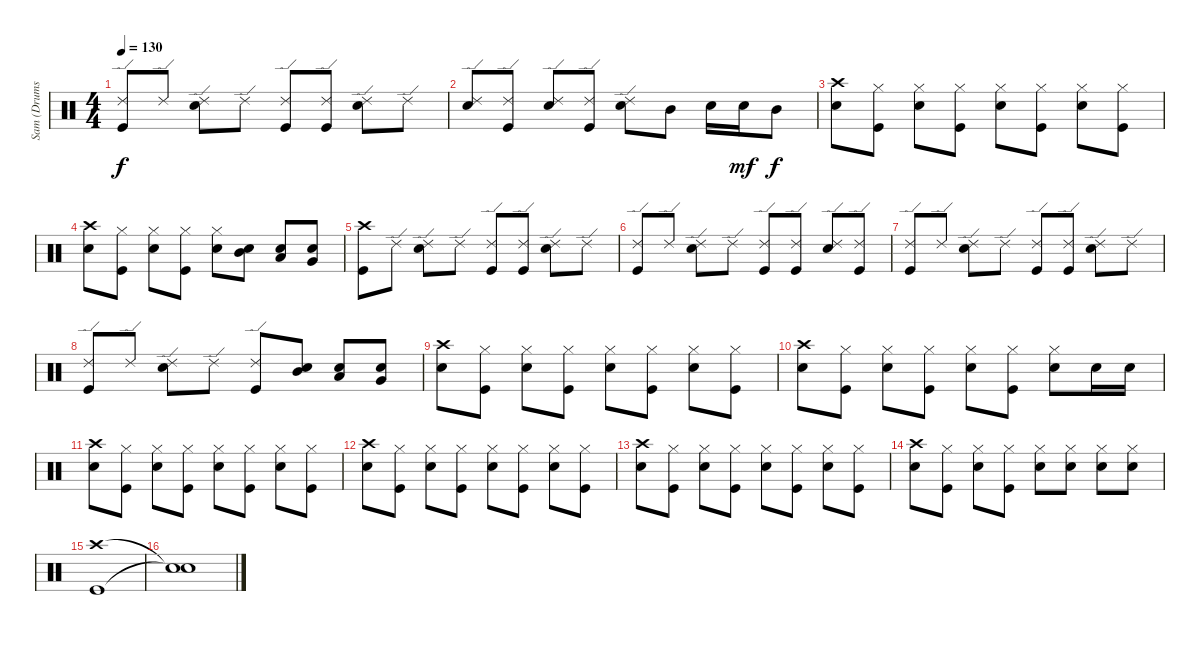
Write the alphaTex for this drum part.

\track ("Sam (Drums)" "Sam (Drums") {instrument percussion}
\staff {score}
\articulation defaults
\ts (4 4)
\tempo 130
\clef neutral
\ks c
("Ride (edge) 2" "Kick (hit)").8{dy f} "Ride (edge) 2".8 ("Ride (edge) 2" "Snare (hit) 2").8 "Ride (edge) 2".8 ("Ride (edge) 2" "Kick (hit)").8 ("Ride (edge) 2" "Kick (hit)").8 ("Ride (edge) 2" "Snare (hit) 2").8 "Ride (edge) 2".8 |
("Ride (edge) 2" "Snare (hit) 2").8 ("Ride (edge) 2" "Kick (hit)").8 ("Ride (edge) 2" "Snare (hit) 2").8 ("Ride (edge) 2" "Kick (hit)").8 ("Ride (edge) 2" "Snare (hit) 2").8 "Mid Tom (hit)".8 "Snare (hit) 2".16 "Snare (hit) 2".16{dy mf} "Mid Tom (hit)".8{dy f} |
("Crash high (hit)" "Snare (hit) 2").8 ("Hi-Hat (closed)" "Kick (hit)").8 ("Hi-Hat (closed)" "Snare (hit) 2").8 ("Hi-Hat (closed)" "Kick (hit)").8 ("Hi-Hat (closed)" "Snare (hit) 2").8 ("Hi-Hat (closed)" "Kick (hit)").8 ("Hi-Hat (closed)" "Snare (hit) 2").8 ("Hi-Hat (closed)" "Kick (hit)").8 |
("Crash high (hit)" "Snare (hit) 2").8 ("Hi-Hat (closed)" "Kick (hit)").8 ("Hi-Hat (closed)" "Snare (hit) 2").8 ("Hi-Hat (closed)" "Kick (hit)").8 ("Hi-Hat (closed)" "Snare (hit) 2").8 ("Mid Tom (hit)" "Snare (hit) 2").8 ("Low Tom (hit)" "Snare (hit) 2").8 ("Very Low Tom (hit)" "Snare (hit) 2").8 |
("Crash high (hit)" "Kick (hit)").8 "Ride (edge) 2".8 ("Ride (edge) 2" "Snare (hit) 2").8 "Ride (edge) 2".8 ("Ride (edge) 2" "Kick (hit)").8 ("Ride (edge) 2" "Kick (hit)").8 ("Ride (edge) 2" "Snare (hit) 2").8 "Ride (edge) 2".8 |
("Ride (edge) 2" "Kick (hit)").8 "Ride (edge) 2".8 ("Ride (edge) 2" "Snare (hit) 2").8 "Ride (edge) 2".8 ("Ride (edge) 2" "Kick (hit)").8 ("Ride (edge) 2" "Kick (hit)").8 ("Ride (edge) 2" "Snare (hit) 2").8 ("Ride (edge) 2" "Kick (hit)").8 |
("Ride (edge) 2" "Kick (hit)").8 "Ride (edge) 2".8 ("Ride (edge) 2" "Snare (hit) 2").8 "Ride (edge) 2".8 ("Ride (edge) 2" "Kick (hit)").8 ("Ride (edge) 2" "Kick (hit)").8 ("Ride (edge) 2" "Snare (hit) 2").8 "Ride (edge) 2".8 |
("Ride (edge) 2" "Kick (hit)").8 "Ride (edge) 2".8 ("Ride (edge) 2" "Snare (hit) 2").8 "Ride (edge) 2".8 ("Ride (edge) 2" "Kick (hit)").8 ("Mid Tom (hit)" "Snare (hit) 2").8 ("Low Tom (hit)" "Snare (hit) 2").8 ("Very Low Tom (hit)" "Snare (hit) 2").8 |
("Crash high (hit)" "Snare (hit) 2").8 ("Hi-Hat (closed)" "Kick (hit)").8 ("Hi-Hat (closed)" "Snare (hit) 2").8 ("Hi-Hat (closed)" "Kick (hit)").8 ("Hi-Hat (closed)" "Snare (hit) 2").8 ("Hi-Hat (closed)" "Kick (hit)").8 ("Hi-Hat (closed)" "Snare (hit) 2").8 ("Hi-Hat (closed)" "Kick (hit)").8 |
("Crash high (hit)" "Snare (hit) 2").8 ("Hi-Hat (closed)" "Kick (hit)").8 ("Hi-Hat (closed)" "Snare (hit) 2").8 ("Hi-Hat (closed)" "Kick (hit)").8 ("Hi-Hat (closed)" "Snare (hit) 2").8 ("Hi-Hat (closed)" "Kick (hit)").8 ("Hi-Hat (closed)" "Snare (hit) 2").8 "Snare (hit) 2".16 "Snare (hit) 2".16 |
("Crash high (hit)" "Snare (hit) 2").8 ("Hi-Hat (closed)" "Kick (hit)").8 ("Hi-Hat (closed)" "Snare (hit) 2").8 ("Hi-Hat (closed)" "Kick (hit)").8 ("Hi-Hat (closed)" "Snare (hit) 2").8 ("Hi-Hat (closed)" "Kick (hit)").8 ("Hi-Hat (closed)" "Snare (hit) 2").8 ("Hi-Hat (closed)" "Kick (hit)").8 |
("Crash high (hit)" "Snare (hit) 2").8 ("Hi-Hat (closed)" "Kick (hit)").8 ("Hi-Hat (closed)" "Snare (hit) 2").8 ("Hi-Hat (closed)" "Kick (hit)").8 ("Hi-Hat (closed)" "Snare (hit) 2").8 ("Hi-Hat (closed)" "Kick (hit)").8 ("Hi-Hat (closed)" "Snare (hit) 2").8 ("Hi-Hat (closed)" "Kick (hit)").8 |
("Crash high (hit)" "Snare (hit) 2").8 ("Hi-Hat (closed)" "Kick (hit)").8 ("Hi-Hat (closed)" "Snare (hit) 2").8 ("Hi-Hat (closed)" "Kick (hit)").8 ("Hi-Hat (closed)" "Snare (hit) 2").8 ("Hi-Hat (closed)" "Kick (hit)").8 ("Hi-Hat (closed)" "Snare (hit) 2").8 ("Hi-Hat (closed)" "Kick (hit)").8 |
("Crash high (hit)" "Snare (hit) 2").8 ("Hi-Hat (closed)" "Kick (hit)").8 ("Hi-Hat (closed)" "Snare (hit) 2").8 ("Hi-Hat (closed)" "Kick (hit)").8 ("Hi-Hat (closed)" "Snare (hit) 2").8 ("Hi-Hat (closed)" "Snare (hit) 2").8 ("Hi-Hat (closed)" "Snare (hit) 2").8 ("Hi-Hat (closed)" "Snare (hit) 2").8 |
("Crash high (hit)" "Kick (hit)").1 |
("Snare (hit)"{t} "Snare (hit)"{t}).1
